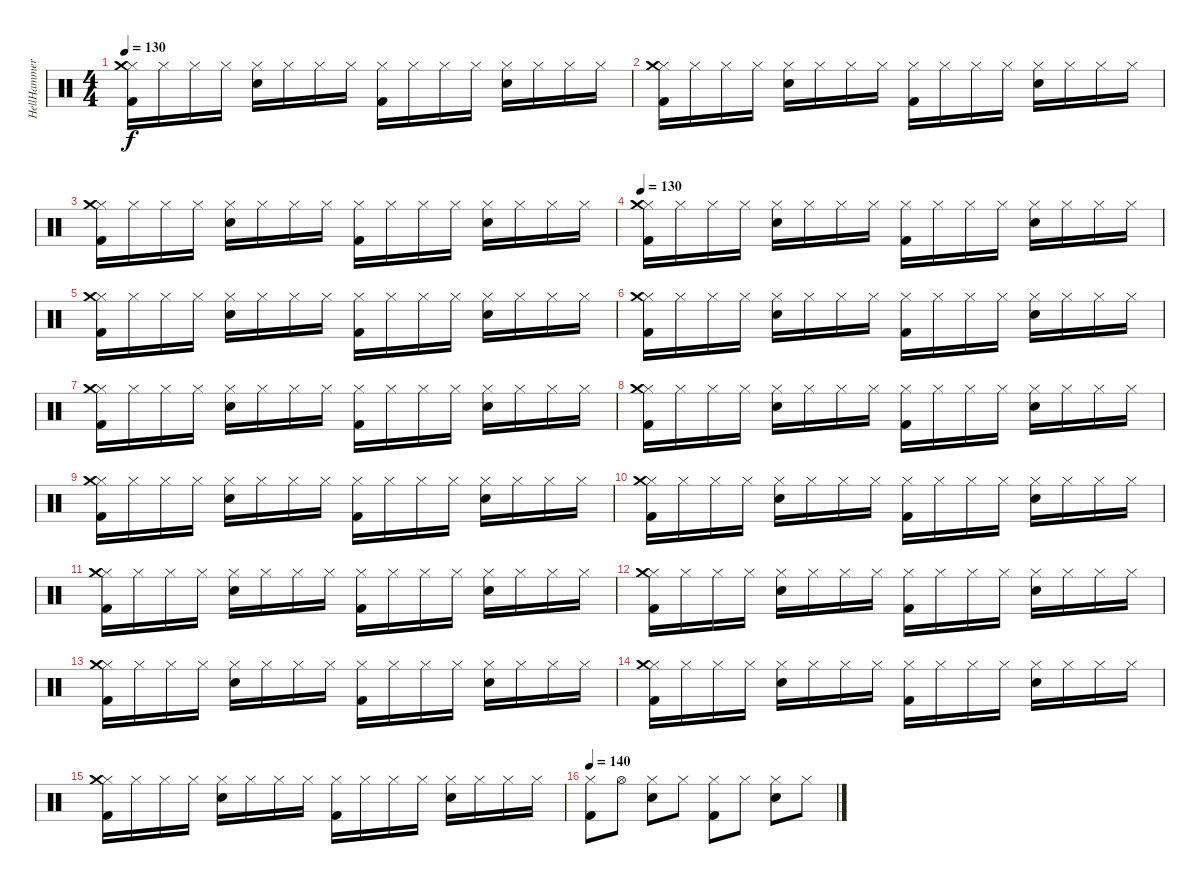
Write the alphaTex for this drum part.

\track ("HellHammer - Drums" "HellHammer") {instrument percussion}
\staff {score}
\articulation defaults
\ts (4 4)
\tempo 130
\clef neutral
\ks c
("Kick (hit) 2" "Hi-Hat (closed)" "Crash medium (hit)").16{dy f} "Hi-Hat (closed)".16 "Hi-Hat (closed)".16 "Hi-Hat (closed)".16 ("Hi-Hat (closed)" "Snare (hit) 2").16 "Hi-Hat (closed)".16 "Hi-Hat (closed)".16 "Hi-Hat (closed)".16 ("Hi-Hat (closed)" "Kick (hit) 2").16 "Hi-Hat (closed)".16 "Hi-Hat (closed)".16 "Hi-Hat (closed)".16 ("Hi-Hat (closed)" "Snare (hit) 2").16 "Hi-Hat (closed)".16 "Hi-Hat (closed)".16 "Hi-Hat (closed)".16 |
("Kick (hit) 2" "Hi-Hat (closed)" "Crash medium (hit)").16 "Hi-Hat (closed)".16 "Hi-Hat (closed)".16 "Hi-Hat (closed)".16 ("Hi-Hat (closed)" "Snare (hit) 2").16 "Hi-Hat (closed)".16 "Hi-Hat (closed)".16 "Hi-Hat (closed)".16 ("Hi-Hat (closed)" "Kick (hit) 2").16 "Hi-Hat (closed)".16 "Hi-Hat (closed)".16 "Hi-Hat (closed)".16 ("Hi-Hat (closed)" "Snare (hit) 2").16 "Hi-Hat (closed)".16 "Hi-Hat (closed)".16 "Hi-Hat (closed)".16 |
("Kick (hit) 2" "Hi-Hat (closed)" "Crash medium (hit)").16 "Hi-Hat (closed)".16 "Hi-Hat (closed)".16 "Hi-Hat (closed)".16 ("Hi-Hat (closed)" "Snare (hit) 2").16 "Hi-Hat (closed)".16 "Hi-Hat (closed)".16 "Hi-Hat (closed)".16 ("Hi-Hat (closed)" "Kick (hit) 2").16 "Hi-Hat (closed)".16 "Hi-Hat (closed)".16 "Hi-Hat (closed)".16 ("Hi-Hat (closed)" "Snare (hit) 2").16 "Hi-Hat (closed)".16 "Hi-Hat (closed)".16 "Hi-Hat (closed)".16 |
\tempo 130
("Kick (hit) 2" "Hi-Hat (closed)" "Crash medium (hit)").16 "Hi-Hat (closed)".16 "Hi-Hat (closed)".16 "Hi-Hat (closed)".16 ("Hi-Hat (closed)" "Snare (hit) 2").16 "Hi-Hat (closed)".16 "Hi-Hat (closed)".16 "Hi-Hat (closed)".16 ("Hi-Hat (closed)" "Kick (hit) 2").16 "Hi-Hat (closed)".16 "Hi-Hat (closed)".16 "Hi-Hat (closed)".16 ("Hi-Hat (closed)" "Snare (hit) 2").16 "Hi-Hat (closed)".16 "Hi-Hat (closed)".16 "Hi-Hat (closed)".16 |
("Kick (hit) 2" "Hi-Hat (closed)" "Crash medium (hit)").16 "Hi-Hat (closed)".16 "Hi-Hat (closed)".16 "Hi-Hat (closed)".16 ("Hi-Hat (closed)" "Snare (hit) 2").16 "Hi-Hat (closed)".16 "Hi-Hat (closed)".16 "Hi-Hat (closed)".16 ("Hi-Hat (closed)" "Kick (hit) 2").16 "Hi-Hat (closed)".16 "Hi-Hat (closed)".16 "Hi-Hat (closed)".16 ("Hi-Hat (closed)" "Snare (hit) 2").16 "Hi-Hat (closed)".16 "Hi-Hat (closed)".16 "Hi-Hat (closed)".16 |
("Kick (hit) 2" "Hi-Hat (closed)" "Crash medium (hit)").16 "Hi-Hat (closed)".16 "Hi-Hat (closed)".16 "Hi-Hat (closed)".16 ("Hi-Hat (closed)" "Snare (hit) 2").16 "Hi-Hat (closed)".16 "Hi-Hat (closed)".16 "Hi-Hat (closed)".16 ("Hi-Hat (closed)" "Kick (hit) 2").16 "Hi-Hat (closed)".16 "Hi-Hat (closed)".16 "Hi-Hat (closed)".16 ("Hi-Hat (closed)" "Snare (hit) 2").16 "Hi-Hat (closed)".16 "Hi-Hat (closed)".16 "Hi-Hat (closed)".16 |
("Kick (hit) 2" "Hi-Hat (closed)" "Crash medium (hit)").16 "Hi-Hat (closed)".16 "Hi-Hat (closed)".16 "Hi-Hat (closed)".16 ("Hi-Hat (closed)" "Snare (hit) 2").16 "Hi-Hat (closed)".16 "Hi-Hat (closed)".16 "Hi-Hat (closed)".16 ("Hi-Hat (closed)" "Kick (hit) 2").16 "Hi-Hat (closed)".16 "Hi-Hat (closed)".16 "Hi-Hat (closed)".16 ("Hi-Hat (closed)" "Snare (hit) 2").16 "Hi-Hat (closed)".16 "Hi-Hat (closed)".16 "Hi-Hat (closed)".16 |
("Kick (hit) 2" "Hi-Hat (closed)" "Crash medium (hit)").16 "Hi-Hat (closed)".16 "Hi-Hat (closed)".16 "Hi-Hat (closed)".16 ("Hi-Hat (closed)" "Snare (hit) 2").16 "Hi-Hat (closed)".16 "Hi-Hat (closed)".16 "Hi-Hat (closed)".16 ("Hi-Hat (closed)" "Kick (hit) 2").16 "Hi-Hat (closed)".16 "Hi-Hat (closed)".16 "Hi-Hat (closed)".16 ("Hi-Hat (closed)" "Snare (hit) 2").16 "Hi-Hat (closed)".16 "Hi-Hat (closed)".16 "Hi-Hat (closed)".16 |
("Kick (hit) 2" "Hi-Hat (closed)" "Crash medium (hit)").16 "Hi-Hat (closed)".16 "Hi-Hat (closed)".16 "Hi-Hat (closed)".16 ("Hi-Hat (closed)" "Snare (hit) 2").16 "Hi-Hat (closed)".16 "Hi-Hat (closed)".16 "Hi-Hat (closed)".16 ("Hi-Hat (closed)" "Kick (hit) 2").16 "Hi-Hat (closed)".16 "Hi-Hat (closed)".16 "Hi-Hat (closed)".16 ("Hi-Hat (closed)" "Snare (hit) 2").16 "Hi-Hat (closed)".16 "Hi-Hat (closed)".16 "Hi-Hat (closed)".16 |
("Kick (hit) 2" "Hi-Hat (closed)" "Crash medium (hit)").16 "Hi-Hat (closed)".16 "Hi-Hat (closed)".16 "Hi-Hat (closed)".16 ("Hi-Hat (closed)" "Snare (hit) 2").16 "Hi-Hat (closed)".16 "Hi-Hat (closed)".16 "Hi-Hat (closed)".16 ("Hi-Hat (closed)" "Kick (hit) 2").16 "Hi-Hat (closed)".16 "Hi-Hat (closed)".16 "Hi-Hat (closed)".16 ("Hi-Hat (closed)" "Snare (hit) 2").16 "Hi-Hat (closed)".16 "Hi-Hat (closed)".16 "Hi-Hat (closed)".16 |
("Kick (hit) 2" "Hi-Hat (closed)" "Crash medium (hit)").16 "Hi-Hat (closed)".16 "Hi-Hat (closed)".16 "Hi-Hat (closed)".16 ("Hi-Hat (closed)" "Snare (hit) 2").16 "Hi-Hat (closed)".16 "Hi-Hat (closed)".16 "Hi-Hat (closed)".16 ("Hi-Hat (closed)" "Kick (hit) 2").16 "Hi-Hat (closed)".16 "Hi-Hat (closed)".16 "Hi-Hat (closed)".16 ("Hi-Hat (closed)" "Snare (hit) 2").16 "Hi-Hat (closed)".16 "Hi-Hat (closed)".16 "Hi-Hat (closed)".16 |
("Kick (hit) 2" "Hi-Hat (closed)" "Crash medium (hit)").16 "Hi-Hat (closed)".16 "Hi-Hat (closed)".16 "Hi-Hat (closed)".16 ("Hi-Hat (closed)" "Snare (hit) 2").16 "Hi-Hat (closed)".16 "Hi-Hat (closed)".16 "Hi-Hat (closed)".16 ("Hi-Hat (closed)" "Kick (hit) 2").16 "Hi-Hat (closed)".16 "Hi-Hat (closed)".16 "Hi-Hat (closed)".16 ("Hi-Hat (closed)" "Snare (hit) 2").16 "Hi-Hat (closed)".16 "Hi-Hat (closed)".16 "Hi-Hat (closed)".16 |
("Kick (hit) 2" "Hi-Hat (closed)" "Crash medium (hit)").16 "Hi-Hat (closed)".16 "Hi-Hat (closed)".16 "Hi-Hat (closed)".16 ("Hi-Hat (closed)" "Snare (hit) 2").16 "Hi-Hat (closed)".16 "Hi-Hat (closed)".16 "Hi-Hat (closed)".16 ("Hi-Hat (closed)" "Kick (hit) 2").16 "Hi-Hat (closed)".16 "Hi-Hat (closed)".16 "Hi-Hat (closed)".16 ("Hi-Hat (closed)" "Snare (hit) 2").16 "Hi-Hat (closed)".16 "Hi-Hat (closed)".16 "Hi-Hat (closed)".16 |
("Kick (hit) 2" "Hi-Hat (closed)" "Crash medium (hit)").16 "Hi-Hat (closed)".16 "Hi-Hat (closed)".16 "Hi-Hat (closed)".16 ("Hi-Hat (closed)" "Snare (hit) 2").16 "Hi-Hat (closed)".16 "Hi-Hat (closed)".16 "Hi-Hat (closed)".16 ("Hi-Hat (closed)" "Kick (hit) 2").16 "Hi-Hat (closed)".16 "Hi-Hat (closed)".16 "Hi-Hat (closed)".16 ("Hi-Hat (closed)" "Snare (hit) 2").16 "Hi-Hat (closed)".16 "Hi-Hat (closed)".16 "Hi-Hat (closed)".16 |
("Kick (hit) 2" "Hi-Hat (closed)" "Crash medium (hit)").16 "Hi-Hat (closed)".16 "Hi-Hat (closed)".16 "Hi-Hat (closed)".16 ("Hi-Hat (closed)" "Snare (hit) 2").16 "Hi-Hat (closed)".16 "Hi-Hat (closed)".16 "Hi-Hat (closed)".16 ("Hi-Hat (closed)" "Kick (hit) 2").16 "Hi-Hat (closed)".16 "Hi-Hat (closed)".16 "Hi-Hat (closed)".16 ("Hi-Hat (closed)" "Snare (hit) 2").16 "Hi-Hat (closed)".16 "Hi-Hat (closed)".16 "Hi-Hat (closed)".16 |
\tempo 140
("Hi-Hat (closed)" "Kick (hit) 2").8 "Hi-Hat (open)".8 ("Hi-Hat (closed)" "Snare (hit) 2").8 "Hi-Hat (closed)".8 ("Hi-Hat (closed)" "Kick (hit) 2").8 "Hi-Hat (closed)".8 ("Hi-Hat (closed)" "Snare (hit) 2").8 "Hi-Hat (closed)".8
